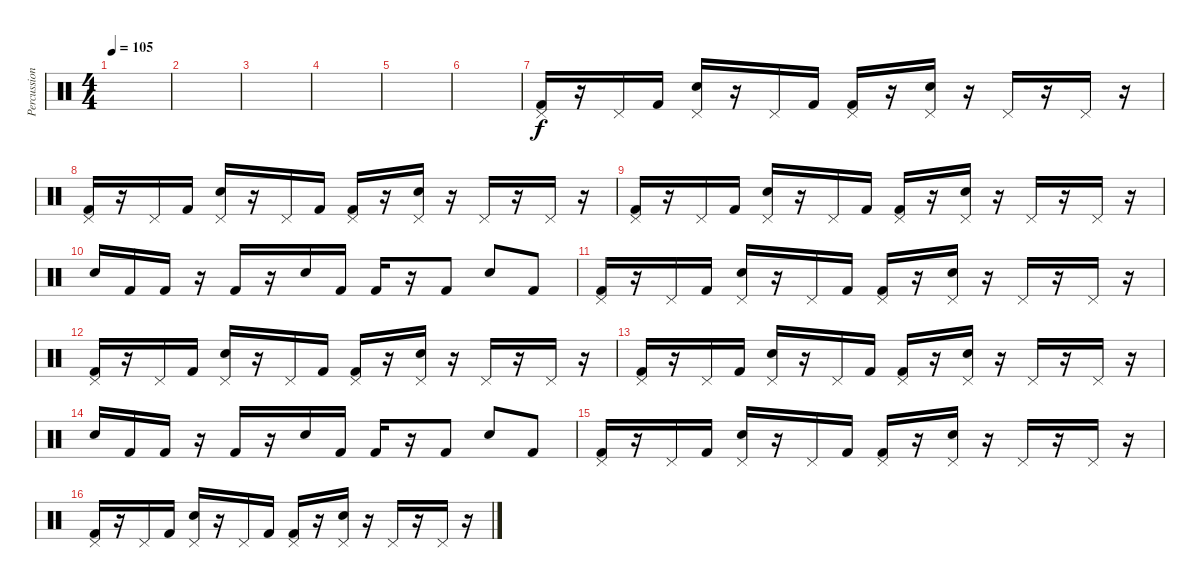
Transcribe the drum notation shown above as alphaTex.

\track ("Percussion" "Percussion") {instrument percussion}
\staff {score}
\articulation defaults
\ts (4 4)
\tempo 105
\clef neutral
\ks c
|
|
|
|
|
|
("Pedal Hi-Hat (hit)" "Kick (hit) 2").16 r.16 "Pedal Hi-Hat (hit)".16 "Kick (hit) 2".16 ("Pedal Hi-Hat (hit)" "Electric Snare (hit)").16 r.16 "Pedal Hi-Hat (hit)".16 "Kick (hit) 2".16 ("Pedal Hi-Hat (hit)" "Kick (hit) 2").16 r.16 ("Pedal Hi-Hat (hit)" "Electric Snare (hit)").16 r.16 "Pedal Hi-Hat (hit)".16 r.16 "Pedal Hi-Hat (hit)".16 r.16 |
("Pedal Hi-Hat (hit)" "Kick (hit) 2").16 r.16 "Pedal Hi-Hat (hit)".16 "Kick (hit) 2".16 ("Pedal Hi-Hat (hit)" "Electric Snare (hit)").16 r.16 "Pedal Hi-Hat (hit)".16 "Kick (hit) 2".16 ("Pedal Hi-Hat (hit)" "Kick (hit) 2").16 r.16 ("Pedal Hi-Hat (hit)" "Electric Snare (hit)").16 r.16 "Pedal Hi-Hat (hit)".16 r.16 "Pedal Hi-Hat (hit)".16 r.16 |
("Pedal Hi-Hat (hit)" "Kick (hit) 2").16 r.16 "Pedal Hi-Hat (hit)".16 "Kick (hit) 2".16 ("Pedal Hi-Hat (hit)" "Electric Snare (hit)").16 r.16 "Pedal Hi-Hat (hit)".16 "Kick (hit) 2".16 ("Pedal Hi-Hat (hit)" "Kick (hit) 2").16 r.16 ("Pedal Hi-Hat (hit)" "Electric Snare (hit)").16 r.16 "Pedal Hi-Hat (hit)".16 r.16 "Pedal Hi-Hat (hit)".16 r.16 |
"Electric Snare (hit)".16 "Kick (hit) 2".16 "Kick (hit) 2".16 r.16 "Kick (hit) 2".16 r.16 "Electric Snare (hit)".16 "Kick (hit) 2".16 "Kick (hit) 2".16 r.16 "Kick (hit) 2".8 "Electric Snare (hit)".8 "Kick (hit) 2".8 |
("Pedal Hi-Hat (hit)" "Kick (hit) 2").16 r.16 "Pedal Hi-Hat (hit)".16 "Kick (hit) 2".16 ("Pedal Hi-Hat (hit)" "Electric Snare (hit)").16 r.16 "Pedal Hi-Hat (hit)".16 "Kick (hit) 2".16 ("Pedal Hi-Hat (hit)" "Kick (hit) 2").16 r.16 ("Pedal Hi-Hat (hit)" "Electric Snare (hit)").16 r.16 "Pedal Hi-Hat (hit)".16 r.16 "Pedal Hi-Hat (hit)".16 r.16 |
("Pedal Hi-Hat (hit)" "Kick (hit) 2").16 r.16 "Pedal Hi-Hat (hit)".16 "Kick (hit) 2".16 ("Pedal Hi-Hat (hit)" "Electric Snare (hit)").16 r.16 "Pedal Hi-Hat (hit)".16 "Kick (hit) 2".16 ("Pedal Hi-Hat (hit)" "Kick (hit) 2").16 r.16 ("Pedal Hi-Hat (hit)" "Electric Snare (hit)").16 r.16 "Pedal Hi-Hat (hit)".16 r.16 "Pedal Hi-Hat (hit)".16 r.16 |
("Pedal Hi-Hat (hit)" "Kick (hit) 2").16 r.16 "Pedal Hi-Hat (hit)".16 "Kick (hit) 2".16 ("Pedal Hi-Hat (hit)" "Electric Snare (hit)").16 r.16 "Pedal Hi-Hat (hit)".16 "Kick (hit) 2".16 ("Pedal Hi-Hat (hit)" "Kick (hit) 2").16 r.16 ("Pedal Hi-Hat (hit)" "Electric Snare (hit)").16 r.16 "Pedal Hi-Hat (hit)".16 r.16 "Pedal Hi-Hat (hit)".16 r.16 |
"Electric Snare (hit)".16 "Kick (hit) 2".16 "Kick (hit) 2".16 r.16 "Kick (hit) 2".16 r.16 "Electric Snare (hit)".16 "Kick (hit) 2".16 "Kick (hit) 2".16 r.16 "Kick (hit) 2".8 "Electric Snare (hit)".8 "Kick (hit) 2".8 |
("Pedal Hi-Hat (hit)" "Kick (hit) 2").16 r.16 "Pedal Hi-Hat (hit)".16 "Kick (hit) 2".16 ("Pedal Hi-Hat (hit)" "Electric Snare (hit)").16 r.16 "Pedal Hi-Hat (hit)".16 "Kick (hit) 2".16 ("Pedal Hi-Hat (hit)" "Kick (hit) 2").16 r.16 ("Pedal Hi-Hat (hit)" "Electric Snare (hit)").16 r.16 "Pedal Hi-Hat (hit)".16 r.16 "Pedal Hi-Hat (hit)".16 r.16 |
("Pedal Hi-Hat (hit)" "Kick (hit) 2").16 r.16 "Pedal Hi-Hat (hit)".16 "Kick (hit) 2".16 ("Pedal Hi-Hat (hit)" "Electric Snare (hit)").16 r.16 "Pedal Hi-Hat (hit)".16 "Kick (hit) 2".16 ("Pedal Hi-Hat (hit)" "Kick (hit) 2").16 r.16 ("Pedal Hi-Hat (hit)" "Electric Snare (hit)").16 r.16 "Pedal Hi-Hat (hit)".16 r.16 "Pedal Hi-Hat (hit)".16 r.16
